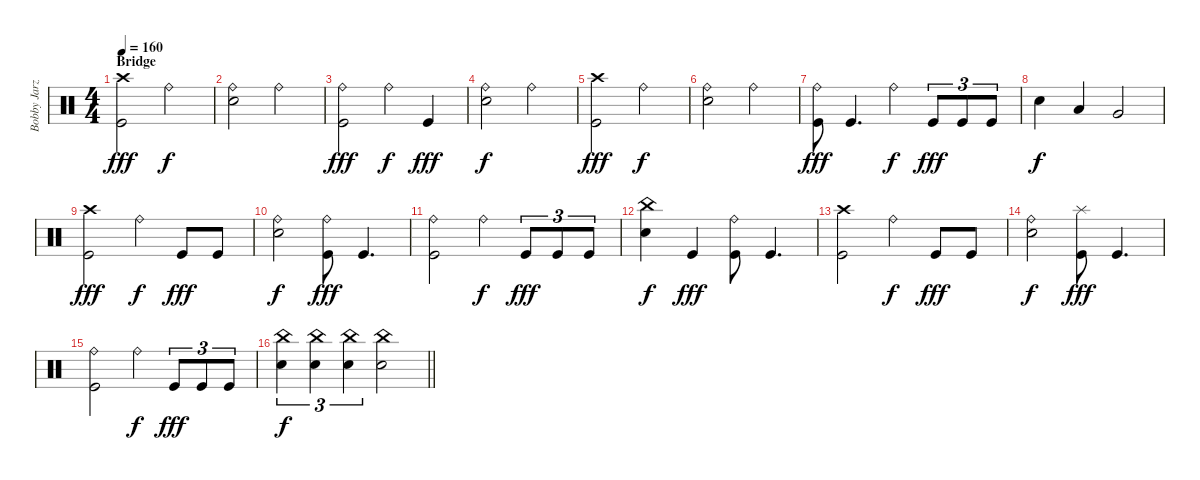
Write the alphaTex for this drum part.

\track ("Bobby Jarzombek" "Bobby Jarz") {instrument percussion}
\staff {score}
\articulation defaults
\ts (4 4)
\section ("" "Bridge")
\tempo 160
\clef neutral
\ks c
("Crash high (hit)" "Kick (hit)").2{dy fff} "Ride (bell)".2{dy f} |
("Ride (bell)" "Electric Snare (hit)").2 "Ride (bell)".2 |
("Ride (bell)" "Kick (hit)").2{dy fff} "Ride (bell)".4{dy f} "Kick (hit)".4{dy fff} |
("Ride (bell)" "Electric Snare (hit)").2{dy f} "Ride (bell)".2 |
("Crash high (hit)" "Kick (hit)").2{dy fff} "Ride (bell)".2{dy f} |
("Ride (bell)" "Electric Snare (hit)").2 "Ride (bell)".2 |
("Ride (bell)" "Kick (hit)").8{dy fff} "Kick (hit)".4{d} "Ride (bell)".4{dy f} "Kick (hit)".8{tu (3 2) dy fff} "Kick (hit)".8{tu (3 2)} "Kick (hit)".8{tu (3 2)} |
"Electric Snare (hit)".4{dy f} "Low Tom (hit)".4 "Very Low Tom (hit)".2 |
("Crash high (hit)" "Kick (hit)").2{dy fff} "Ride (bell)".4{dy f} "Kick (hit)".8{dy fff} "Kick (hit)".8 |
("Ride (bell)" "Electric Snare (hit)").2{dy f} ("Ride (bell)" "Kick (hit)").8{dy fff} "Kick (hit)".4{d} |
("Ride (bell)" "Kick (hit)").2 "Ride (bell)".4{dy f} "Kick (hit)".8{tu (3 2) dy fff} "Kick (hit)".8{tu (3 2)} "Kick (hit)".8{tu (3 2)} |
("China (hit)" "Electric Snare (hit)").4{dy f} "Kick (hit)".4{dy fff} ("Ride (bell)" "Kick (hit)").8 "Kick (hit)".4{d} |
("Crash high (hit)" "Kick (hit)").2 "Ride (bell)".4{dy f} "Kick (hit)".8{dy fff} "Kick (hit)".8 |
("Ride (bell)" "Electric Snare (hit)").2{dy f} ("Splash (hit)" "Kick (hit)").8{dy fff} "Kick (hit)".4{d} |
("Ride (bell)" "Kick (hit)").2 "Ride (bell)".4{dy f} "Kick (hit)".8{tu (3 2) dy fff} "Kick (hit)".8{tu (3 2)} "Kick (hit)".8{tu (3 2)} |
\barLineRight lightlight
("China (hit)" "Electric Snare (hit)").4{tu (3 2) dy f} ("China (hit)" "Electric Snare (hit)").4{tu (3 2)} ("China (hit)" "Electric Snare (hit)").4{tu (3 2)} ("China (hit)" "Electric Snare (hit)").2
